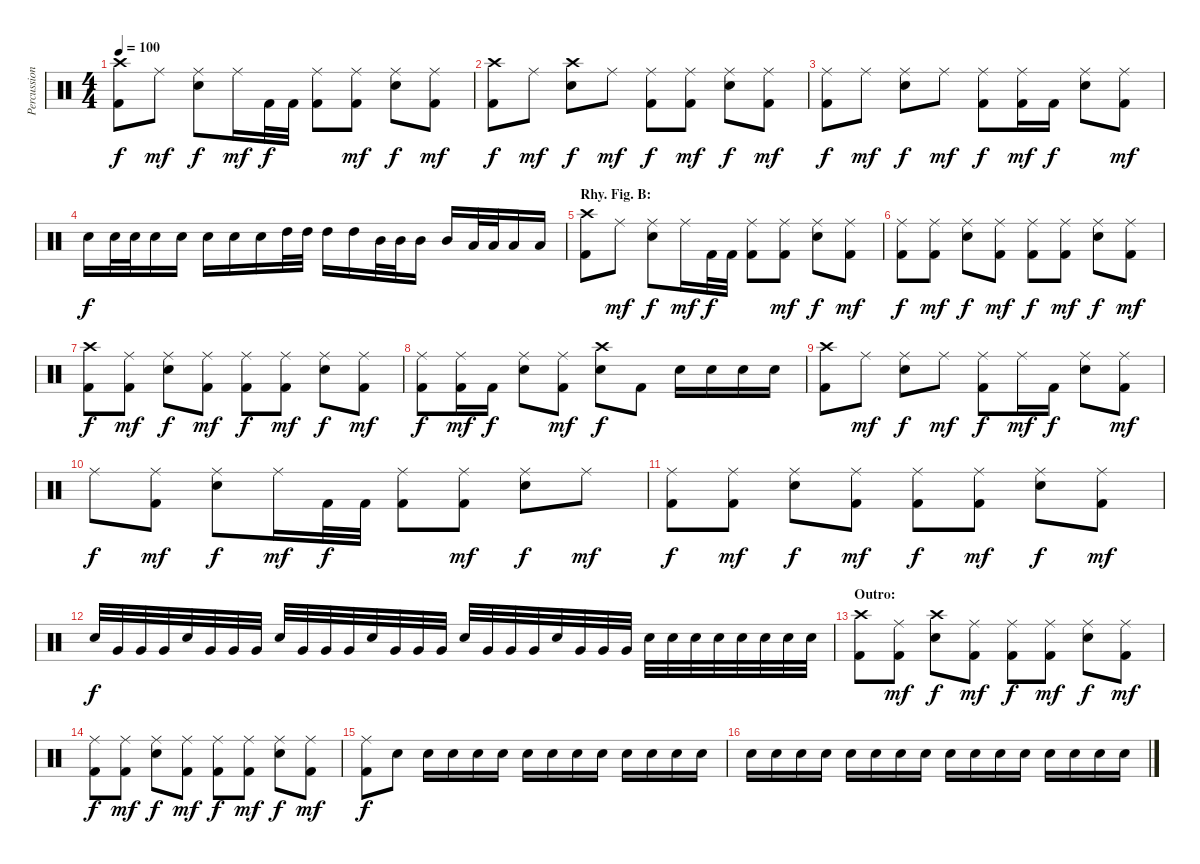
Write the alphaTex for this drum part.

\track ("Percussion" "Percussion") {instrument percussion}
\staff {score}
\articulation defaults
\ts (4 4)
\tempo 100
\clef neutral
\ks c
("Crash high (hit)" "Kick (hit) 2").8{dy f} "Ride (middle)".8{dy mf} ("Ride (middle)" "Electric Snare (hit)").8{dy f} "Ride (middle)".16{dy mf} "Kick (hit) 2".32{dy f} "Kick (hit) 2".32 ("Ride (middle)" "Kick (hit) 2").8 ("Ride (middle)" "Kick (hit) 2").8{dy mf} ("Ride (middle)" "Electric Snare (hit)").8{dy f} ("Ride (middle)" "Kick (hit) 2").8{dy mf} |
("Crash high (hit)" "Kick (hit) 2").8{dy f} "Ride (middle)".8{dy mf} ("Crash high (hit)" "Electric Snare (hit)").8{dy f} "Ride (middle)".8{dy mf} ("Ride (middle)" "Kick (hit) 2").8{dy f} ("Ride (middle)" "Kick (hit) 2").8{dy mf} ("Ride (middle)" "Electric Snare (hit)").8{dy f} ("Ride (middle)" "Kick (hit) 2").8{dy mf} |
("Ride (middle)" "Kick (hit) 2").8{dy f} "Ride (middle)".8{dy mf} ("Ride (middle)" "Electric Snare (hit)").8{dy f} "Ride (middle)".8{dy mf} ("Ride (middle)" "Kick (hit) 2").8{dy f} ("Ride (middle)" "Kick (hit) 2").16{dy mf} "Kick (hit) 2".16{dy f} ("Ride (middle)" "Electric Snare (hit)").8 ("Ride (middle)" "Kick (hit) 2").8{dy mf} |
"Electric Snare (hit)".16{dy f} "Electric Snare (hit)".32 "Electric Snare (hit)".32 "Electric Snare (hit)".16 "Electric Snare (hit)".16 "Electric Snare (hit)".16 "Electric Snare (hit)".16 "Electric Snare (hit)".16 "High Tom (hit)".32 "High Tom (hit)".32 "High Tom (hit)".16 "High Tom (hit)".16 "Mid Tom (hit)".32 "Mid Tom (hit)".32 "Mid Tom (hit)".16 "Mid Tom (hit)".16 "Low Tom (hit)".32 "Low Tom (hit)".32 "Low Tom (hit)".16 "Low Tom (hit)".16 |
\section ("" "Rhy. Fig. B:")
("Crash high (hit)" "Kick (hit) 2").8 "Ride (middle)".8{dy mf} ("Ride (middle)" "Electric Snare (hit)").8{dy f} "Ride (middle)".16{dy mf} "Kick (hit) 2".32{dy f} "Kick (hit) 2".32 ("Ride (middle)" "Kick (hit) 2").8 ("Ride (middle)" "Kick (hit) 2").8{dy mf} ("Ride (middle)" "Electric Snare (hit)").8{dy f} ("Ride (middle)" "Kick (hit) 2").8{dy mf} |
("Ride (middle)" "Kick (hit) 2").8{dy f} ("Ride (middle)" "Kick (hit) 2").8{dy mf} ("Ride (middle)" "Electric Snare (hit)").8{dy f} ("Ride (middle)" "Kick (hit) 2").8{dy mf} ("Ride (middle)" "Kick (hit) 2").8{dy f} ("Ride (middle)" "Kick (hit) 2").8{dy mf} ("Ride (middle)" "Electric Snare (hit)").8{dy f} ("Ride (middle)" "Kick (hit) 2").8{dy mf} |
("Crash high (hit)" "Kick (hit) 2").8{dy f} ("Ride (middle)" "Kick (hit) 2").8{dy mf} ("Ride (middle)" "Electric Snare (hit)").8{dy f} ("Ride (middle)" "Kick (hit) 2").8{dy mf} ("Ride (middle)" "Kick (hit) 2").8{dy f} ("Ride (middle)" "Kick (hit) 2").8{dy mf} ("Ride (middle)" "Electric Snare (hit)").8{dy f} ("Ride (middle)" "Kick (hit) 2").8{dy mf} |
("Ride (middle)" "Kick (hit) 2").8{dy f} ("Ride (middle)" "Kick (hit) 2").16{dy mf} "Kick (hit) 2".16{dy f} ("Ride (middle)" "Electric Snare (hit)").8 ("Ride (middle)" "Kick (hit) 2").8{dy mf} ("Crash high (hit)" "Electric Snare (hit)").8{dy f} "Kick (hit) 2".8 "Electric Snare (hit)".16 "Electric Snare (hit)".16 "Electric Snare (hit)".16 "Electric Snare (hit)".16 |
("Crash high (hit)" "Kick (hit) 2").8 "Ride (middle)".8{dy mf} ("Ride (middle)" "Electric Snare (hit)").8{dy f} "Ride (middle)".8{dy mf} ("Ride (middle)" "Kick (hit) 2").8{dy f} "Ride (middle)".16{dy mf} "Kick (hit) 2".16{dy f} ("Ride (middle)" "Electric Snare (hit)").8 ("Ride (middle)" "Kick (hit) 2").8{dy mf} |
"Ride (middle)".8{dy f} ("Ride (middle)" "Kick (hit) 2").8{dy mf} ("Ride (middle)" "Electric Snare (hit)").8{dy f} "Ride (middle)".16{dy mf} "Kick (hit) 2".32{dy f} "Kick (hit) 2".32 ("Ride (middle)" "Kick (hit) 2").8 ("Ride (middle)" "Kick (hit) 2").8{dy mf} ("Ride (middle)" "Electric Snare (hit)").8{dy f} "Ride (middle)".8{dy mf} |
("Ride (middle)" "Kick (hit) 2").8{dy f} ("Ride (middle)" "Kick (hit) 2").8{dy mf} ("Ride (middle)" "Electric Snare (hit)").8{dy f} ("Ride (middle)" "Kick (hit) 2").8{dy mf} ("Ride (middle)" "Kick (hit) 2").8{dy f} ("Ride (middle)" "Kick (hit) 2").8{dy mf} ("Ride (middle)" "Electric Snare (hit)").8{dy f} ("Ride (middle)" "Kick (hit) 2").8{dy mf} |
"Electric Snare (hit)".32{dy f} "Very Low Tom (hit)".32 "Very Low Tom (hit)".32 "Very Low Tom (hit)".32 "Electric Snare (hit)".32 "Very Low Tom (hit)".32 "Very Low Tom (hit)".32 "Very Low Tom (hit)".32 "Electric Snare (hit)".32 "Very Low Tom (hit)".32 "Very Low Tom (hit)".32 "Very Low Tom (hit)".32 "Electric Snare (hit)".32 "Very Low Tom (hit)".32 "Very Low Tom (hit)".32 "Very Low Tom (hit)".32 "Electric Snare (hit)".32 "Very Low Tom (hit)".32 "Very Low Tom (hit)".32 "Very Low Tom (hit)".32 "Electric Snare (hit)".32 "Very Low Tom (hit)".32 "Very Low Tom (hit)".32 "Very Low Tom (hit)".32 "Electric Snare (hit)".32 "Electric Snare (hit)".32 "Electric Snare (hit)".32 "Electric Snare (hit)".32 "Electric Snare (hit)".32 "Electric Snare (hit)".32 "Electric Snare (hit)".32 "Electric Snare (hit)".32 |
\section ("" "Outro:")
("Crash high (hit)" "Kick (hit) 2").8 ("Ride (middle)" "Kick (hit) 2").8{dy mf} ("Crash high (hit)" "Electric Snare (hit)").8{dy f} ("Ride (middle)" "Kick (hit) 2").8{dy mf} ("Ride (middle)" "Kick (hit) 2").8{dy f} ("Ride (middle)" "Kick (hit) 2").8{dy mf} ("Ride (middle)" "Electric Snare (hit)").8{dy f} ("Ride (middle)" "Kick (hit) 2").8{dy mf} |
("Ride (middle)" "Kick (hit) 2").8{dy f} ("Ride (middle)" "Kick (hit) 2").8{dy mf} ("Ride (middle)" "Electric Snare (hit)").8{dy f} ("Ride (middle)" "Kick (hit) 2").8{dy mf} ("Ride (middle)" "Kick (hit) 2").8{dy f} ("Ride (middle)" "Kick (hit) 2").8{dy mf} ("Ride (middle)" "Electric Snare (hit)").8{dy f} ("Ride (middle)" "Kick (hit) 2").8{dy mf} |
("Ride (middle)" "Kick (hit) 2").8{dy f} "Electric Snare (hit)".8 "Electric Snare (hit)".16 "Electric Snare (hit)".16 "Electric Snare (hit)".16 "Electric Snare (hit)".16 "Electric Snare (hit)".16 "Electric Snare (hit)".16 "Electric Snare (hit)".16 "Electric Snare (hit)".16 "Electric Snare (hit)".16 "Electric Snare (hit)".16 "Electric Snare (hit)".16 "Electric Snare (hit)".16 |
"Electric Snare (hit)".16 "Electric Snare (hit)".16 "Electric Snare (hit)".16 "Electric Snare (hit)".16 "Electric Snare (hit)".16 "Electric Snare (hit)".16 "Electric Snare (hit)".16 "Electric Snare (hit)".16 "Electric Snare (hit)".16 "Electric Snare (hit)".16 "Electric Snare (hit)".16 "Electric Snare (hit)".16 "Electric Snare (hit)".16 "Electric Snare (hit)".16 "Electric Snare (hit)".16 "Electric Snare (hit)".16
